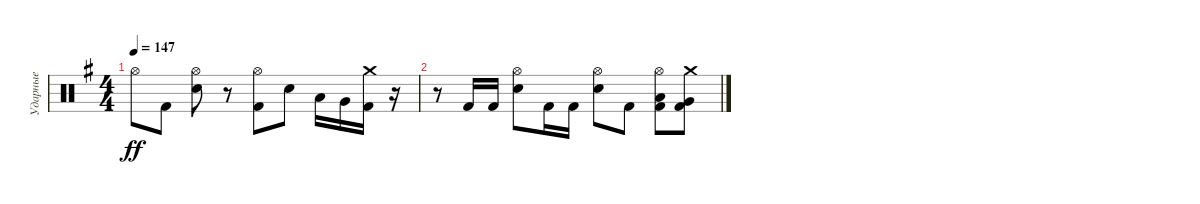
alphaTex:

\track ("Ударные" "Ударные") {instrument percussion}
\staff {score}
\articulation defaults
\ts (4 4)
\tempo 147
\clef neutral
\ks eminor "Hi-Hat (open)".8{dy ff} "Kick (hit) 2".8
("Electric Snare (hit)" "Hi-Hat (open)").8 r.8 ("Kick (hit) 2" "Hi-Hat (open)").8 "Electric Snare (hit)".8 "Low Tom (hit)".16 "Very Low Tom (hit)".16 ("Kick (hit) 2" "Crash medium (hit)").16 r.16 |
r.8 "Kick (hit) 2".16 "Kick (hit) 2".16 ("Electric Snare (hit)" "Hi-Hat (open)").8 "Kick (hit) 2".16 "Kick (hit) 2".16 ("Electric Snare (hit)" "Hi-Hat (open)").8 "Kick (hit) 2".8 ("Kick (hit) 2" "Low Tom (hit)" "Hi-Hat (open)").8 ("Kick (hit) 2" "Very Low Tom (hit)" "Crash medium (hit)").8
